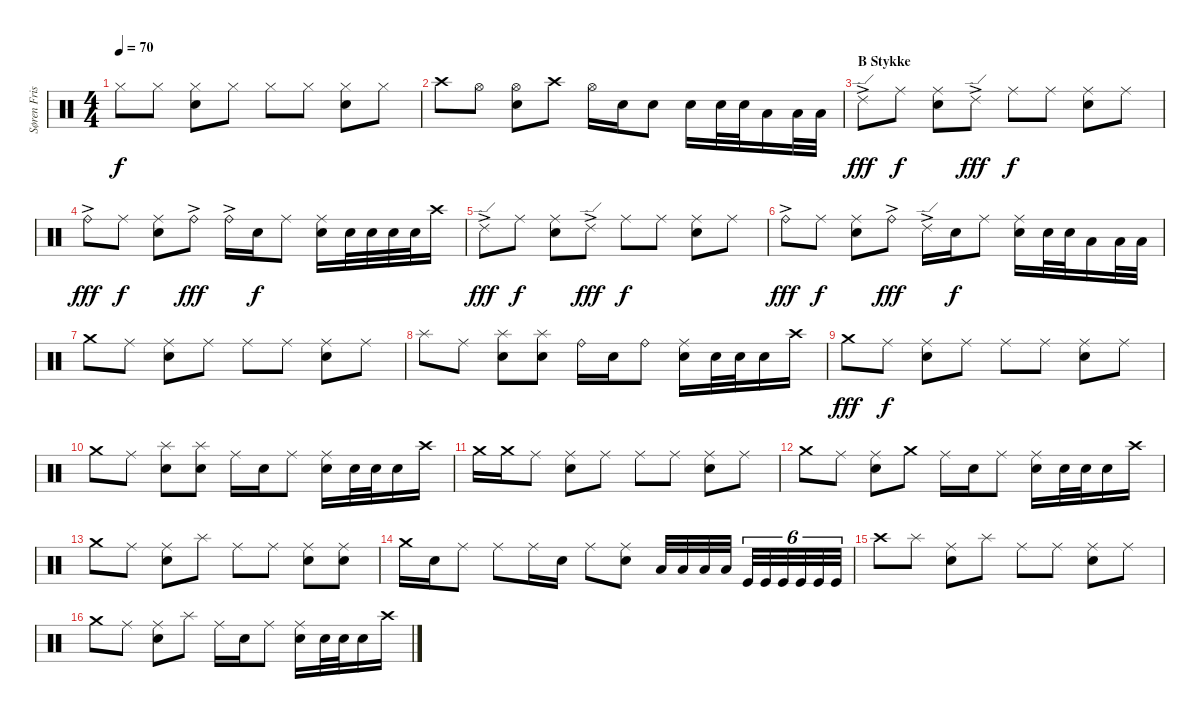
\track ("Søren Fris (Drums)" "Søren Fris") {instrument percussion}
\staff {score}
\articulation defaults
\ts (4 4)
\tempo 70
\clef neutral
\ks c "Hi-Hat (closed)".8{dy f} "Hi-Hat (closed)".8
("Hi-Hat (closed)" "Snare (hit) 2").8 "Hi-Hat (closed)".8 "Hi-Hat (closed)".8 "Hi-Hat (closed)".8 ("Hi-Hat (closed)" "Snare (hit) 2").8 "Hi-Hat (closed)".8 |
"Crash high (hit)".8 "Hi-Hat (open)".8 ("Hi-Hat (open)" "Snare (hit) 2").8 "Crash high (hit)".8 "Hi-Hat (open)".16 "Snare (hit) 2".16 "Snare (hit) 2".8 "Electric Snare (hit)".16 "Electric Snare (hit)".32 "Electric Snare (hit)".32 "Low Tom (hit)".16 "Low Tom (hit)".32 "Low Tom (hit)".32 |
\section ("" "B Stykke")
"Ride (edge) 2"{ac}.8{dy fff} "Ride (middle)".8{dy f} ("Ride (middle)" "Snare (hit) 2").8 "Ride (edge) 2"{ac}.8{dy fff} "Ride (middle)".8{dy f} "Ride (middle)".8 ("Ride (middle)" "Snare (hit) 2").8 "Ride (middle)".8 |
"Ride (bell)"{ac}.8{dy fff} "Ride (middle)".8{dy f} ("Ride (middle)" "Snare (hit) 2").8 "Ride (bell)"{ac}.8{dy fff} "Ride (bell)"{ac}.16 "Snare (hit) 2".16{dy f} "Ride (middle)".8 ("Ride (middle)" "Snare (hit) 2").16 "Snare (hit) 2".32 "Snare (hit) 2".32 "Electric Snare (hit)".32 "Electric Snare (hit)".32 "Crash high (hit)".16 |
"Ride (edge) 2"{ac}.8{dy fff} "Ride (middle)".8{dy f} ("Ride (middle)" "Snare (hit) 2").8 "Ride (edge) 2"{ac}.8{dy fff} "Ride (middle)".8{dy f} "Ride (middle)".8 ("Ride (middle)" "Snare (hit) 2").8 "Ride (middle)".8 |
"Ride (bell)"{ac}.8{dy fff} "Ride (middle)".8{dy f} ("Ride (middle)" "Snare (hit) 2").8 "Ride (bell)"{ac}.8{dy fff} "Ride (edge) 2"{ac}.16 "Snare (hit) 2".16{dy f} "Ride (middle)".8 ("Ride (middle)" "Snare (hit) 2").16 "Electric Snare (hit)".32 "Electric Snare (hit)".32 "Low Tom (hit)".16 "Low Tom (hit)".32 "Low Tom (hit)".32 |
"Crash medium (hit)".8 "Ride (middle)".8 ("Ride (middle)" "Snare (hit) 2").8 "Ride (middle)".8 "Ride (middle)".8 "Ride (middle)".8 ("Ride (middle)" "Snare (hit) 2").8 "Ride (middle)".8 |
"Splash (hit)".8 "Ride (middle)".8 ("Splash (hit)" "Snare (hit) 2").8 ("Splash (hit)" "Snare (hit) 2").8 "Ride (bell)".16 "Snare (hit) 2".16 "Ride (bell)".8 ("Ride (middle)" "Snare (hit) 2").16 "Snare (hit) 2".32 "Snare (hit) 2".32 "Snare (hit) 2".16 "Crash high (hit)".16 |
"Crash medium (hit)".8{dy fff} "Ride (middle)".8{dy f} ("Ride (middle)" "Snare (hit) 2").8 "Ride (middle)".8 "Ride (middle)".8 "Ride (middle)".8 ("Ride (middle)" "Snare (hit) 2").8 "Ride (middle)".8 |
"Crash medium (hit)".8 "Ride (middle)".8 ("Splash (hit)" "Snare (hit) 2").8 ("Splash (hit)" "Snare (hit) 2").8 "Ride (middle)".16 "Snare (hit) 2".16 "Ride (middle)".8 ("Ride (middle)" "Snare (hit) 2").16 "Snare (hit) 2".32 "Snare (hit) 2".32 "Snare (hit) 2".16 "Crash high (hit)".16 |
"Crash medium (hit)".16 "Crash medium (hit)".16 "Ride (middle)".8 ("Ride (middle)" "Snare (hit) 2").8 "Ride (middle)".8 "Ride (middle)".8 "Ride (middle)".8 ("Ride (middle)" "Snare (hit) 2").8 "Ride (middle)".8 |
"Crash medium (hit)".8 "Ride (middle)".8 ("Ride (middle)" "Snare (hit) 2").8 "Crash medium (hit)".8 "Ride (middle)".16 "Snare (hit) 2".16 "Ride (middle)".8 ("Ride (middle)" "Snare (hit) 2").16 "Snare (hit) 2".32 "Snare (hit) 2".32 "Snare (hit) 2".16 "Crash high (hit)".16 |
"Crash medium (hit)".8 "Ride (middle)".8 ("Ride (middle)" "Snare (hit) 2").8 "Splash (hit)".8 "Ride (middle)".8 "Ride (middle)".8 ("Snare (hit) 2" "Ride (middle)").8 ("Ride (middle)" "Snare (hit) 2").8 |
"Crash medium (hit)".16 "Snare (hit) 2".16 "Ride (middle)".8 "Ride (middle)".8 "Ride (middle)".16 "Snare (hit) 2".16 "Ride (middle)".8 ("Ride (middle)" "Snare (hit) 2").8 "Low Tom (hit)".32 "Low Tom (hit)".32 "Low Tom (hit)".32 "Low Tom (hit)".32 "Kick (hit)".32{tu (6 4)} "Kick (hit)".32{tu (6 4)} "Kick (hit)".32{tu (6 4)} "Kick (hit)".32{tu (6 4)} "Kick (hit)".32{tu (6 4)} "Kick (hit)".32{tu (6 4)} |
"Crash high (hit)".8 "Splash (hit)".8 ("Ride (middle)" "Snare (hit) 2").8 "Splash (hit)".8 "Ride (middle)".8 "Ride (middle)".8 ("Ride (middle)" "Snare (hit) 2").8 "Ride (middle)".8 |
"Crash medium (hit)".8 "Ride (middle)".8 ("Ride (middle)" "Snare (hit) 2").8 "Splash (hit)".8 "Ride (middle)".16 "Snare (hit) 2".16 "Ride (middle)".8 ("Ride (middle)" "Snare (hit) 2").16 "Snare (hit) 2".32 "Snare (hit) 2".32 "Snare (hit) 2".16 "Crash high (hit)".16
